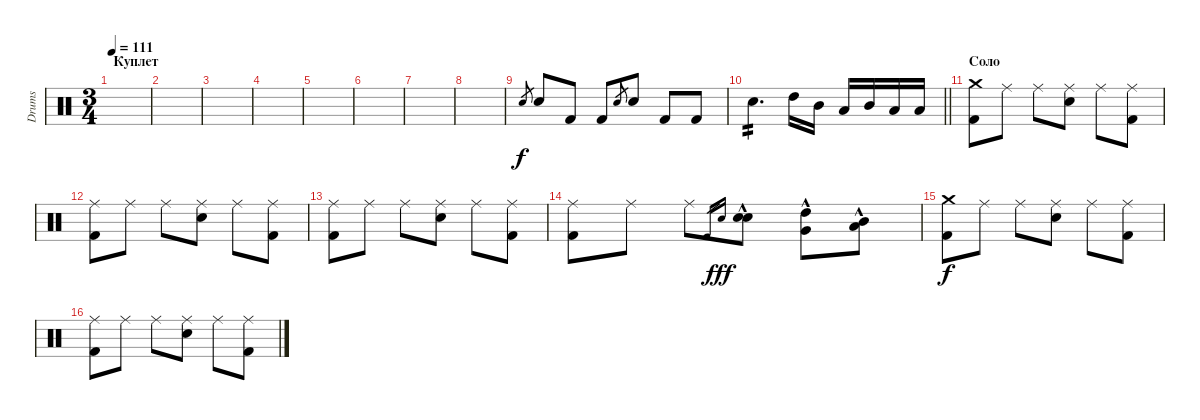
\track ("Drums" "Drums") {instrument percussion}
\staff {score}
\articulation defaults
\ts (3 4)
\section ("" "Куплет")
\tempo 111
\clef neutral
\ks c
|
|
|
|
|
|
|
|
"Electric Snare (hit)".8{gr} "Snare (hit) 2".8 "Kick (hit) 2".8 "Kick (hit) 2".8 "Electric Snare (hit)".8{gr} "Snare (hit) 2".8 "Kick (hit) 2".8 "Kick (hit) 2".8 |
\barLineRight lightlight "Electric Snare (hit)".4{d tp 2} "High Tom (hit)".16 "Mid Tom (hit)".16 "Low Tom (hit)".16 "Mid Tom (hit)".16 "Low Tom (hit)".16 "Low Floor Tom (hit)".16
|
\section ("" "Соло")
("Crash medium (hit)" "Kick (hit) 2").8 "Ride (middle)".8 "Ride (middle)".8 ("Ride (middle)" "Snare (hit) 2").8 "Ride (middle)".8 ("Ride (middle)" "Kick (hit) 2").8 |
("Ride (middle)" "Kick (hit) 2").8 "Ride (middle)".8 "Ride (middle)".8 ("Ride (middle)" "Snare (hit) 2").8 "Ride (middle)".8 ("Ride (middle)" "Kick (hit) 2").8 |
("Ride (middle)" "Kick (hit) 2").8 "Ride (middle)".8 "Ride (middle)".8 ("Ride (middle)" "Snare (hit) 2").8 "Ride (middle)".8 ("Ride (middle)" "Kick (hit) 2").8 |
("Ride (middle)" "Kick (hit) 2").8 "Ride (middle)".8 "Ride (middle)".8 "Kick (hit) 2".16{gr} "Snare (hit) 2".16{gr dy fff} ("Snare (hit) 2"{hac} "Electric Snare (hit)"{hac}).8 ("High Tom (hit)"{hac} "Very Low Tom (hit)"{hac}).8 ("Mid Tom (hit)"{hac} "Low Floor Tom (hit)"{hac}).8 |
("Crash medium (hit)" "Kick (hit) 2").8{dy f} "Ride (middle)".8 "Ride (middle)".8 ("Ride (middle)" "Snare (hit) 2").8 "Ride (middle)".8 ("Ride (middle)" "Kick (hit) 2").8 |
("Ride (middle)" "Kick (hit) 2").8 "Ride (middle)".8 "Ride (middle)".8 ("Ride (middle)" "Snare (hit) 2").8 "Ride (middle)".8 ("Ride (middle)" "Kick (hit) 2").8
